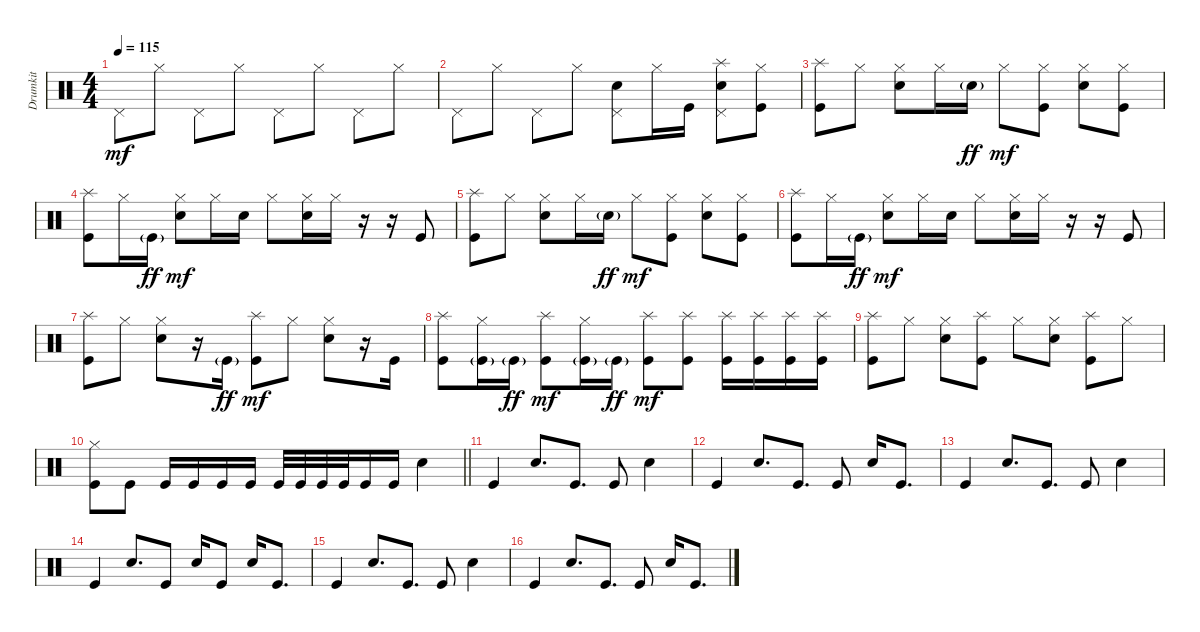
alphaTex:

\track ("Drumkit" "Drumkit") {instrument percussion}
\staff {score}
\articulation defaults
\ts (4 4)
\tempo 115
\clef neutral
\ks c "Pedal Hi-Hat (hit)".8{dy mf} "Hi-Hat (closed)".8 "Pedal Hi-Hat (hit)".8 "Hi-Hat (closed)".8 "Pedal Hi-Hat (hit)".8 "Hi-Hat (closed)".8 "Pedal Hi-Hat (hit)".8 "Hi-Hat (closed)".8
|
"Pedal Hi-Hat (hit)".8 "Hi-Hat (closed)".8 "Pedal Hi-Hat (hit)".8 "Hi-Hat (closed)".8 ("Pedal Hi-Hat (hit)" "Snare (hit) 2").8 "Hi-Hat (closed)".16 "Kick (hit)".16 ("Pedal Hi-Hat (hit)" "Snare (hit) 2" "Splash (hit)").8 ("Hi-Hat (closed)" "Kick (hit)").8 |
("Splash (hit)" "Kick (hit)").8 "Hi-Hat (closed)".8 ("Snare (hit) 2" "Hi-Hat (closed)").8 "Hi-Hat (closed)".16 "Snare (hit) 2"{g}.16{dy ff} "Hi-Hat (closed)".8{dy mf} ("Kick (hit)" "Hi-Hat (closed)").8 ("Snare (hit) 2" "Hi-Hat (closed)").8 ("Kick (hit)" "Hi-Hat (closed)").8 |
("Kick (hit)" "Splash (hit)").8 "Hi-Hat (closed)".16 "Kick (hit)"{g}.16{dy ff} ("Snare (hit) 2" "Hi-Hat (closed)").8{dy mf} "Hi-Hat (closed)".16 "Snare (hit) 2".16 "Hi-Hat (closed)".8 ("Snare (hit) 2" "Hi-Hat (closed)").16 "Hi-Hat (closed)".16 r.16 r.16 "Kick (hit)".8 |
("Splash (hit)" "Kick (hit)").8 "Hi-Hat (closed)".8 ("Snare (hit) 2" "Hi-Hat (closed)").8 "Hi-Hat (closed)".16 "Snare (hit) 2"{g}.16{dy ff} "Hi-Hat (closed)".8{dy mf} ("Kick (hit)" "Hi-Hat (closed)").8 ("Snare (hit) 2" "Hi-Hat (closed)").8 ("Kick (hit)" "Hi-Hat (closed)").8 |
("Kick (hit)" "Splash (hit)").8 "Hi-Hat (closed)".16 "Kick (hit)"{g}.16{dy ff} ("Snare (hit) 2" "Hi-Hat (closed)").8{dy mf} "Hi-Hat (closed)".16 "Snare (hit) 2".16 "Hi-Hat (closed)".8 ("Snare (hit) 2" "Hi-Hat (closed)").16 "Hi-Hat (closed)".16 r.16 r.16 "Kick (hit)".8 |
("Splash (hit)" "Kick (hit)").8 "Hi-Hat (closed)".8 ("Snare (hit) 2" "Hi-Hat (closed)").8 r.16 "Kick (hit)"{g}.16{dy ff} ("Splash (hit)" "Kick (hit)").8{dy mf} "Hi-Hat (closed)".8 ("Snare (hit) 2" "Hi-Hat (closed)").8 r.16 "Kick (hit)".16 |
("Splash (hit)" "Kick (hit)").8 ("Hi-Hat (closed)" "Kick (hit)"{g}).16 "Kick (hit)"{g}.16{dy ff} ("Splash (hit)" "Kick (hit)").8{dy mf} ("Hi-Hat (closed)" "Kick (hit)"{g}).16 "Kick (hit)"{g}.16{dy ff} ("Splash (hit)" "Kick (hit)").8{dy mf} ("Splash (hit)" "Kick (hit)").8 ("Splash (hit)" "Kick (hit)").16 ("Splash (hit)" "Kick (hit)").16 ("Splash (hit)" "Kick (hit)").16 ("Splash (hit)" "Kick (hit)").16 |
("Splash (hit)" "Kick (hit)").8 "Hi-Hat (closed)".8 ("Snare (hit) 2" "Hi-Hat (closed)").8 ("Splash (hit)" "Kick (hit)").8 "Hi-Hat (closed)".8 ("Snare (hit) 2" "Hi-Hat (closed)").8 ("Splash (hit)" "Kick (hit)").8 "Hi-Hat (closed)".8 |
\barLineRight lightlight
("Hi-Hat (closed)" "Kick (hit)").8 "Kick (hit)".8 "Kick (hit)".16 "Kick (hit)".16 "Kick (hit)".16 "Kick (hit)".16 "Kick (hit)".32 "Kick (hit)".32 "Kick (hit)".32 "Kick (hit)".32 "Kick (hit)".16 "Kick (hit)".16 "Snare (hit) 2".4 |
"Kick (hit)".4 "Snare (hit) 2".8{d} "Kick (hit)".8{d} "Kick (hit)".8 "Snare (hit) 2".4 |
"Kick (hit)".4 "Snare (hit) 2".8{d} "Kick (hit)".8{d} "Kick (hit)".8 "Snare (hit) 2".16 "Kick (hit)".8{d} |
"Kick (hit)".4 "Snare (hit) 2".8{d} "Kick (hit)".8{d} "Kick (hit)".8 "Snare (hit) 2".4 |
"Kick (hit)".4 "Snare (hit) 2".8{d} "Kick (hit)".8 "Snare (hit) 2".16 "Kick (hit)".8 "Snare (hit) 2".16 "Kick (hit)".8{d} |
"Kick (hit)".4 "Snare (hit) 2".8{d} "Kick (hit)".8{d} "Kick (hit)".8 "Snare (hit) 2".4 |
"Kick (hit)".4 "Snare (hit) 2".8{d} "Kick (hit)".8{d} "Kick (hit)".8 "Snare (hit) 2".16 "Kick (hit)".8{d}
